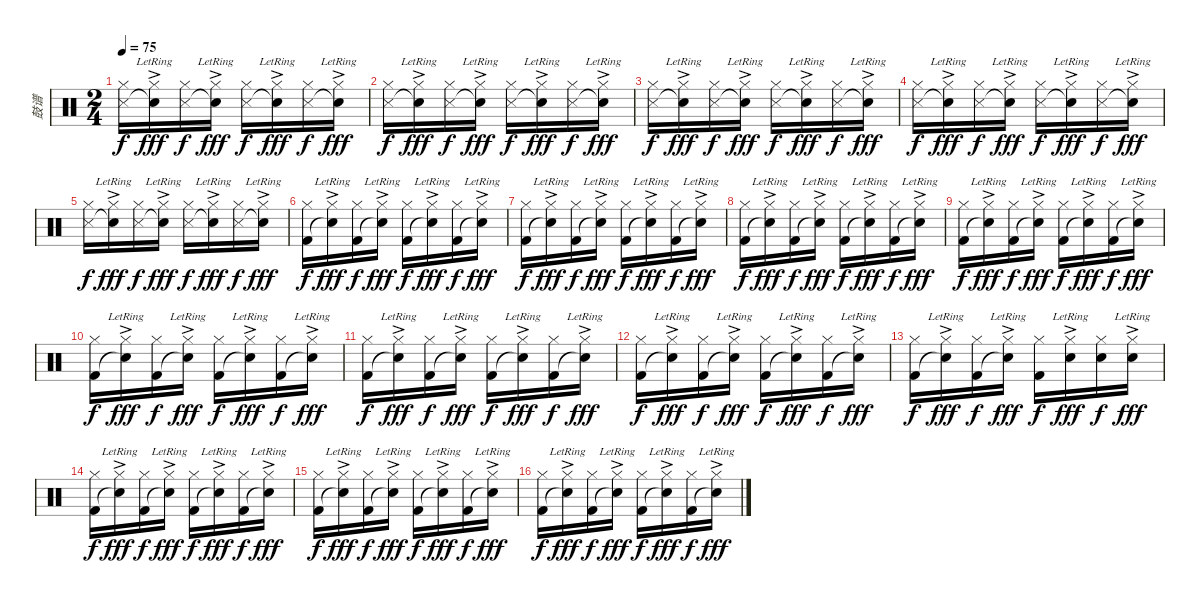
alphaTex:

\track ("鼓谱" "鼓谱") {instrument percussion}
\staff {score}
\articulation defaults
\ts (2 4)
\tempo 75
\clef neutral
\ks c
("Snare (side stick) 3" "Hi-Hat (closed)").16{dy f} ("Snare (hit)"{t} "Hi-Hat (closed)"{ac lr}).16{dy fff} ("Snare (side stick) 3" "Hi-Hat (closed)").16{dy f} ("Snare (hit)"{t} "Hi-Hat (closed)"{ac lr}).16{dy fff} ("Snare (side stick) 3" "Hi-Hat (closed)").16{dy f} ("Snare (hit)"{t} "Hi-Hat (closed)"{ac lr}).16{dy fff} ("Snare (side stick) 3" "Hi-Hat (closed)").16{dy f} ("Snare (hit)"{t} "Hi-Hat (closed)"{ac lr}).16{dy fff} |
("Snare (side stick) 3" "Hi-Hat (closed)").16{dy f} ("Snare (hit)"{t} "Hi-Hat (closed)"{ac lr}).16{dy fff} ("Snare (side stick) 3" "Hi-Hat (closed)").16{dy f} ("Snare (hit)"{t} "Hi-Hat (closed)"{ac lr}).16{dy fff} ("Snare (side stick) 3" "Hi-Hat (closed)").16{dy f} ("Snare (hit)"{t} "Hi-Hat (closed)"{ac lr}).16{dy fff} ("Snare (side stick) 3" "Hi-Hat (closed)").16{dy f} ("Snare (hit)"{t} "Hi-Hat (closed)"{ac lr}).16{dy fff} |
("Snare (side stick) 3" "Hi-Hat (closed)").16{dy f} ("Snare (hit)"{t} "Hi-Hat (closed)"{ac lr}).16{dy fff} ("Snare (side stick) 3" "Hi-Hat (closed)").16{dy f} ("Snare (hit)"{t} "Hi-Hat (closed)"{ac lr}).16{dy fff} ("Snare (side stick) 3" "Hi-Hat (closed)").16{dy f} ("Snare (hit)"{t} "Hi-Hat (closed)"{ac lr}).16{dy fff} ("Snare (side stick) 3" "Hi-Hat (closed)").16{dy f} ("Snare (hit)"{t} "Hi-Hat (closed)"{ac lr}).16{dy fff} |
("Snare (side stick) 3" "Hi-Hat (closed)").16{dy f} ("Snare (hit)"{t} "Hi-Hat (closed)"{ac lr}).16{dy fff} ("Snare (side stick) 3" "Hi-Hat (closed)").16{dy f} ("Snare (hit)"{t} "Hi-Hat (closed)"{ac lr}).16{dy fff} ("Snare (side stick) 3" "Hi-Hat (closed)").16{dy f} ("Snare (hit)"{t} "Hi-Hat (closed)"{ac lr}).16{dy fff} ("Snare (side stick) 3" "Hi-Hat (closed)").16{dy f} ("Snare (hit)"{t} "Hi-Hat (closed)"{ac lr}).16{dy fff} |
("Snare (side stick) 3" "Hi-Hat (closed)").16{dy f} ("Snare (hit)"{t} "Hi-Hat (closed)"{ac lr}).16{dy fff} ("Snare (side stick) 3" "Hi-Hat (closed)").16{dy f} ("Snare (hit)"{t} "Hi-Hat (closed)"{ac lr}).16{dy fff} ("Snare (side stick) 3" "Hi-Hat (closed)").16{dy f} ("Snare (hit)"{t} "Hi-Hat (closed)"{ac lr}).16{dy fff} ("Snare (side stick) 3" "Hi-Hat (closed)").16{dy f} ("Snare (hit)"{t} "Hi-Hat (closed)"{ac lr}).16{dy fff} |
("Kick (hit) 2" "Hi-Hat (closed)").16{dy f} ("Snare (hit)"{t} "Hi-Hat (closed)"{ac lr}).16{dy fff} ("Kick (hit) 2" "Hi-Hat (closed)").16{dy f} ("Snare (hit)"{t} "Hi-Hat (closed)"{ac lr}).16{dy fff} ("Kick (hit) 2" "Hi-Hat (closed)").16{dy f} ("Snare (hit)"{t} "Hi-Hat (closed)"{ac lr}).16{dy fff} ("Kick (hit) 2" "Hi-Hat (closed)").16{dy f} ("Snare (hit)"{t} "Hi-Hat (closed)"{ac lr}).16{dy fff} |
("Kick (hit) 2" "Hi-Hat (closed)").16{dy f} ("Snare (hit)"{t} "Hi-Hat (closed)"{ac lr}).16{dy fff} ("Kick (hit) 2" "Hi-Hat (closed)").16{dy f} ("Snare (hit)"{t} "Hi-Hat (closed)"{ac lr}).16{dy fff} ("Kick (hit) 2" "Hi-Hat (closed)").16{dy f} ("Snare (hit)"{t} "Hi-Hat (closed)"{ac lr}).16{dy fff} ("Kick (hit) 2" "Hi-Hat (closed)").16{dy f} ("Snare (hit)"{t} "Hi-Hat (closed)"{ac lr}).16{dy fff} |
("Kick (hit) 2" "Hi-Hat (closed)").16{dy f} ("Snare (hit)"{t} "Hi-Hat (closed)"{ac lr}).16{dy fff} ("Kick (hit) 2" "Hi-Hat (closed)").16{dy f} ("Snare (hit)"{t} "Hi-Hat (closed)"{ac lr}).16{dy fff} ("Kick (hit) 2" "Hi-Hat (closed)").16{dy f} ("Snare (hit)"{t} "Hi-Hat (closed)"{ac lr}).16{dy fff} ("Kick (hit) 2" "Hi-Hat (closed)").16{dy f} ("Snare (hit)"{t} "Hi-Hat (closed)"{ac lr}).16{dy fff} |
("Kick (hit) 2" "Hi-Hat (closed)").16{dy f} ("Snare (hit)"{t} "Hi-Hat (closed)"{ac lr}).16{dy fff} ("Kick (hit) 2" "Hi-Hat (closed)").16{dy f} ("Snare (hit)"{t} "Hi-Hat (closed)"{ac lr}).16{dy fff} ("Kick (hit) 2" "Hi-Hat (closed)").16{dy f} ("Snare (hit)"{t} "Hi-Hat (closed)"{ac lr}).16{dy fff} ("Kick (hit) 2" "Hi-Hat (closed)").16{dy f} ("Snare (hit)"{t} "Hi-Hat (closed)"{ac lr}).16{dy fff} |
("Kick (hit) 2" "Hi-Hat (closed)").16{dy f} ("Snare (hit)"{t} "Hi-Hat (closed)"{ac lr}).16{dy fff} ("Kick (hit) 2" "Hi-Hat (closed)").16{dy f} ("Snare (hit)"{t} "Hi-Hat (closed)"{ac lr}).16{dy fff} ("Kick (hit) 2" "Hi-Hat (closed)").16{dy f} ("Snare (hit)"{t} "Hi-Hat (closed)"{ac lr}).16{dy fff} ("Kick (hit) 2" "Hi-Hat (closed)").16{dy f} ("Snare (hit)"{t} "Hi-Hat (closed)"{ac lr}).16{dy fff} |
("Kick (hit) 2" "Hi-Hat (closed)").16{dy f} ("Snare (hit)"{t} "Hi-Hat (closed)"{ac lr}).16{dy fff} ("Kick (hit) 2" "Hi-Hat (closed)").16{dy f} ("Snare (hit)"{t} "Hi-Hat (closed)"{ac lr}).16{dy fff} ("Kick (hit) 2" "Hi-Hat (closed)").16{dy f} ("Snare (hit)"{t} "Hi-Hat (closed)"{ac lr}).16{dy fff} ("Kick (hit) 2" "Hi-Hat (closed)").16{dy f} ("Snare (hit)"{t} "Hi-Hat (closed)"{ac lr}).16{dy fff} |
("Kick (hit) 2" "Hi-Hat (closed)").16{dy f} ("Snare (hit)"{t} "Hi-Hat (closed)"{ac lr}).16{dy fff} ("Kick (hit) 2" "Hi-Hat (closed)").16{dy f} ("Snare (hit)"{t} "Hi-Hat (closed)"{ac lr}).16{dy fff} ("Kick (hit) 2" "Hi-Hat (closed)").16{dy f} ("Snare (hit)"{t} "Hi-Hat (closed)"{ac lr}).16{dy fff} ("Kick (hit) 2" "Hi-Hat (closed)").16{dy f} ("Snare (hit)"{t} "Hi-Hat (closed)"{ac lr}).16{dy fff} |
("Kick (hit) 2" "Hi-Hat (closed)").16{dy f} ("Snare (hit)"{t} "Hi-Hat (closed)"{ac lr}).16{dy fff} ("Kick (hit) 2" "Hi-Hat (closed)").16{dy f} ("Snare (hit)"{t} "Hi-Hat (closed)"{ac lr}).16{dy fff} ("Kick (hit) 2" "Hi-Hat (closed)").16{dy f} ("Electric Snare (hit)" "Hi-Hat (closed)"{ac lr}).16{dy fff} ("Electric Snare (hit)" "Hi-Hat (closed)").16{dy f volume 14} ("Electric Snare (hit)" "Hi-Hat (closed)"{ac lr}).16{dy fff volume 16} |
("Kick (hit) 2" "Hi-Hat (closed)").16{dy f volume 12} ("Snare (hit)"{t} "Hi-Hat (closed)"{ac lr}).16{dy fff} ("Kick (hit) 2" "Hi-Hat (closed)").16{dy f} ("Snare (hit)"{t} "Hi-Hat (closed)"{ac lr}).16{dy fff} ("Kick (hit) 2" "Hi-Hat (closed)").16{dy f} ("Snare (hit)"{t} "Hi-Hat (closed)"{ac lr}).16{dy fff} ("Kick (hit) 2" "Hi-Hat (closed)").16{dy f} ("Snare (hit)"{t} "Hi-Hat (closed)"{ac lr}).16{dy fff} |
("Kick (hit) 2" "Hi-Hat (closed)").16{dy f} ("Snare (hit)"{t} "Hi-Hat (closed)"{ac lr}).16{dy fff} ("Kick (hit) 2" "Hi-Hat (closed)").16{dy f} ("Snare (hit)"{t} "Hi-Hat (closed)"{ac lr}).16{dy fff} ("Kick (hit) 2" "Hi-Hat (closed)").16{dy f} ("Snare (hit)"{t} "Hi-Hat (closed)"{ac lr}).16{dy fff} ("Kick (hit) 2" "Hi-Hat (closed)").16{dy f} ("Snare (hit)"{t} "Hi-Hat (closed)"{ac lr}).16{dy fff} |
("Kick (hit) 2" "Hi-Hat (closed)").16{dy f} ("Snare (hit)"{t} "Hi-Hat (closed)"{ac lr}).16{dy fff} ("Kick (hit) 2" "Hi-Hat (closed)").16{dy f} ("Snare (hit)"{t} "Hi-Hat (closed)"{ac lr}).16{dy fff} ("Kick (hit) 2" "Hi-Hat (closed)").16{dy f} ("Snare (hit)"{t} "Hi-Hat (closed)"{ac lr}).16{dy fff} ("Kick (hit) 2" "Hi-Hat (closed)").16{dy f} ("Snare (hit)"{t} "Hi-Hat (closed)"{ac lr}).16{dy fff}
